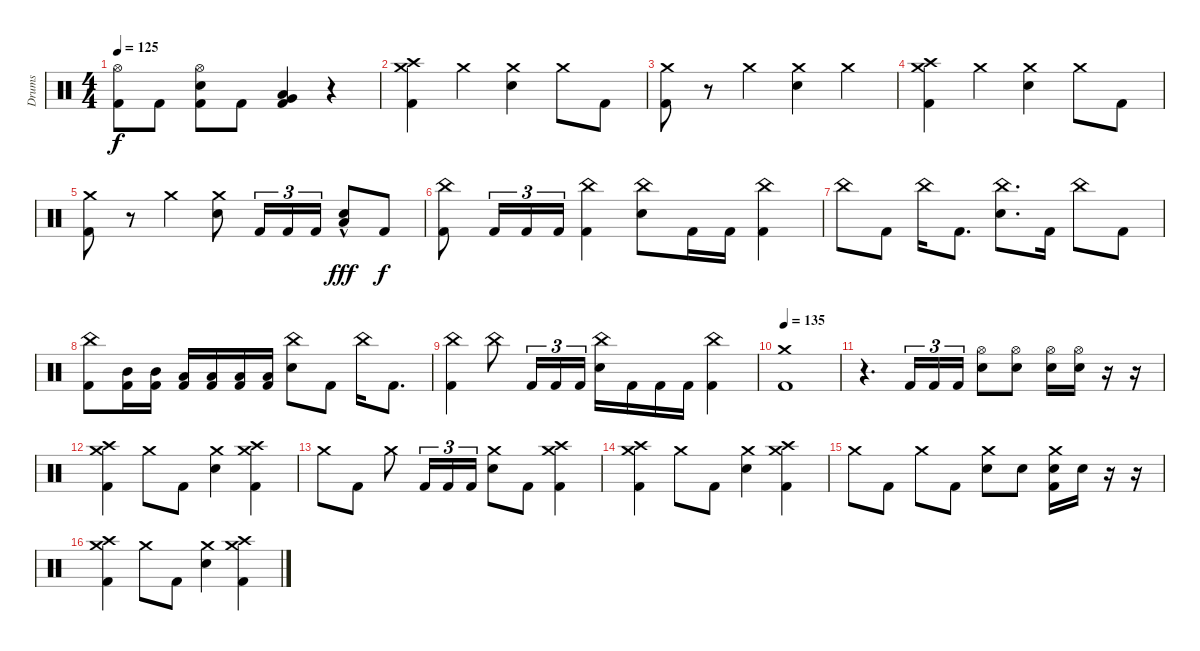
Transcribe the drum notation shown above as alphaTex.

\track ("Drums" "Drums") {instrument percussion}
\staff {score}
\articulation defaults
\ts (4 4)
\tempo 125
\clef neutral
\ks c
("Hi-Hat (open)" "Kick (hit) 2").8{dy f} "Kick (hit) 2".8 ("Hi-Hat (open)" "Electric Snare (hit)" "Kick (hit) 2").8 "Kick (hit) 2".8 ("Very Low Tom (hit)" "Low Floor Tom (hit)" "Kick (hit) 2").4 r.4 |
("Crash high (hit)" "Crash medium (hit)" "Kick (hit) 2").4 "Crash medium (hit)".4 ("Crash medium (hit)" "Electric Snare (hit)").4 "Crash medium (hit)".8 "Kick (hit) 2".8 |
("Crash medium (hit)" "Kick (hit) 2").8 r.8 "Crash medium (hit)".4 ("Crash medium (hit)" "Electric Snare (hit)").4 "Crash medium (hit)".4 |
("Crash high (hit)" "Crash medium (hit)" "Kick (hit) 2").4 "Crash medium (hit)".4 ("Crash medium (hit)" "Electric Snare (hit)").4 "Crash medium (hit)".8 "Kick (hit) 2".8 |
("Crash medium (hit)" "Kick (hit) 2").8 r.8 "Crash medium (hit)".4 ("Crash medium (hit)" "Electric Snare (hit)").8 "Kick (hit) 2".16{tu (3 2)} "Kick (hit) 2".16{tu (3 2)} "Kick (hit) 2".16{tu (3 2)} ("Low Floor Tom (hit)"{hac} "Electric Snare (hit)"{hac}).8{dy fff} "Kick (hit) 2".8{dy f} |
("China (hit)" "Kick (hit) 2").8 "Kick (hit) 2".16{tu (3 2)} "Kick (hit) 2".16{tu (3 2)} "Kick (hit) 2".16{tu (3 2)} ("China (hit)" "Kick (hit) 2").4 ("China (hit)" "Electric Snare (hit)").8 "Kick (hit) 2".16 "Kick (hit) 2".16 ("China (hit)" "Kick (hit) 2").4 |
"China (hit)".8 "Kick (hit) 2".8 "China (hit)".16 "Kick (hit) 2".8{d} ("China (hit)" "Electric Snare (hit)").8{d} "Kick (hit) 2".16 "China (hit)".8 "Kick (hit) 2".8 |
("China (hit)" "Kick (hit) 2").8 ("Mid Tom (hit)" "Kick (hit) 2").16 ("Mid Tom (hit)" "Kick (hit) 2").16 ("Low Tom (hit)" "Kick (hit) 2").16 ("Low Tom (hit)" "Kick (hit) 2").16 ("Low Floor Tom (hit)" "Kick (hit) 2").16 ("Low Floor Tom (hit)" "Kick (hit) 2").16 ("China (hit)" "Electric Snare (hit)").8 "Kick (hit) 2".8 "China (hit)".16 "Kick (hit) 2".8{d} |
("China (hit)" "Kick (hit) 2").4 "China (hit)".8 "Kick (hit) 2".16{tu (3 2)} "Kick (hit) 2".16{tu (3 2)} "Kick (hit) 2".16{tu (3 2)} ("China (hit)" "Electric Snare (hit)").16 "Kick (hit) 2".16 "Kick (hit) 2".16 "Kick (hit) 2".16 ("China (hit)" "Kick (hit) 2").4 |
\tempo 135
("Crash medium (hit)" "Kick (hit) 2").1 |
r.4{d} "Kick (hit) 2".16{tu (3 2)} "Kick (hit) 2".16{tu (3 2)} "Kick (hit) 2".16{tu (3 2)} ("Hi-Hat (open)" "Electric Snare (hit)").8 ("Hi-Hat (open)" "Electric Snare (hit)").8 ("Hi-Hat (open)" "Electric Snare (hit)").16 ("Hi-Hat (open)" "Electric Snare (hit)").16 r.16 r.16 |
("Crash medium (hit)" "Crash high (hit)" "Kick (hit) 2").4 "Crash medium (hit)".8 "Kick (hit) 2".8 ("Crash medium (hit)" "Electric Snare (hit)").4 ("Crash medium (hit)" "Crash high (hit)" "Kick (hit) 2").4 |
"Crash medium (hit)".8 "Kick (hit) 2".8 "Crash medium (hit)".8 "Kick (hit) 2".16{tu (3 2)} "Kick (hit) 2".16{tu (3 2)} "Kick (hit) 2".16{tu (3 2)} ("Crash medium (hit)" "Electric Snare (hit)").8 "Kick (hit) 2".8 ("Crash medium (hit)" "Crash high (hit)" "Kick (hit) 2").4 |
("Crash medium (hit)" "Crash high (hit)" "Kick (hit) 2").4 "Crash medium (hit)".8 "Kick (hit) 2".8 ("Crash medium (hit)" "Electric Snare (hit)").4 ("Crash medium (hit)" "Crash high (hit)" "Kick (hit) 2").4 |
"Crash medium (hit)".8 "Kick (hit) 2".8 "Crash medium (hit)".8 "Kick (hit) 2".8 ("Crash medium (hit)" "Electric Snare (hit)").8 "Electric Snare (hit)".8 ("Crash medium (hit)" "Electric Snare (hit)" "Kick (hit) 2").16 "Electric Snare (hit)".16 r.16 r.16 |
("Crash medium (hit)" "Crash high (hit)" "Kick (hit) 2").4 "Crash medium (hit)".8 "Kick (hit) 2".8 ("Crash medium (hit)" "Electric Snare (hit)").4 ("Crash medium (hit)" "Crash high (hit)" "Kick (hit) 2").4
